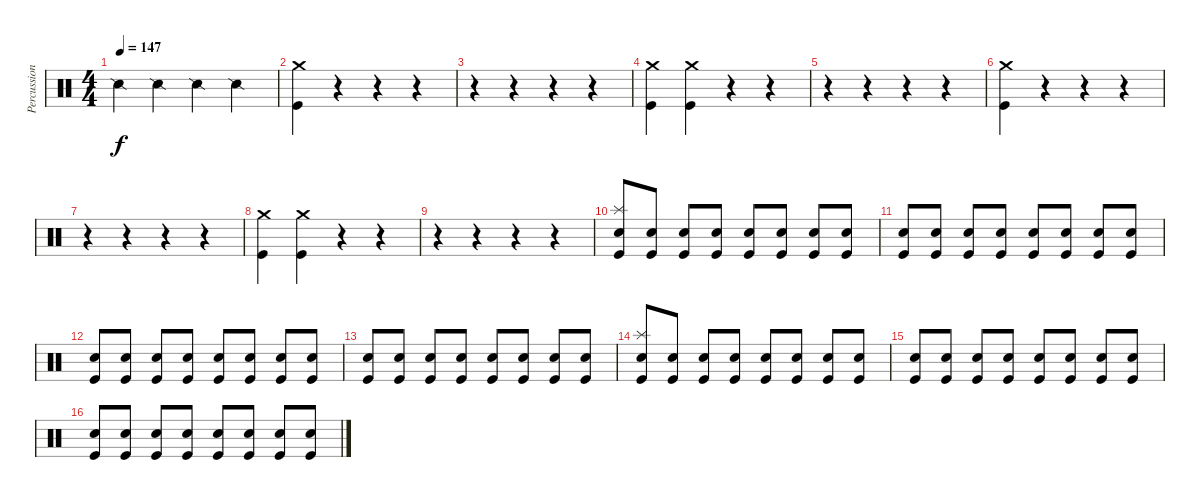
\track ("Percussions" "Percussion") {instrument percussion}
\staff {score}
\articulation defaults
\ts (4 4)
\tempo 147
\clef neutral
\ks c "Snare (side stick) 2".4{dy f} "Snare (side stick) 2".4 "Snare (side stick) 2".4 "Snare (side stick) 2".4
|
("Kick (hit)" "Crash medium (hit)").4 r.4 r.4 r.4 |
r.4 r.4 r.4 r.4 |
("Kick (hit)" "Crash medium (hit)").4 ("Crash medium (hit)" "Kick (hit)").4 r.4 r.4 |
r.4 r.4 r.4 r.4 |
("Kick (hit)" "Crash medium (hit)").4 r.4 r.4 r.4 |
r.4 r.4 r.4 r.4 |
("Kick (hit)" "Crash medium (hit)").4 ("Kick (hit)" "Crash medium (hit)").4 r.4 r.4 |
r.4 r.4 r.4 r.4 |
("Splash (hit)" "Electric Snare (hit)" "Kick (hit)").8 ("Electric Snare (hit)" "Kick (hit)").8 ("Electric Snare (hit)" "Kick (hit)").8 ("Electric Snare (hit)" "Kick (hit)").8 ("Electric Snare (hit)" "Kick (hit)").8 ("Electric Snare (hit)" "Kick (hit)").8 ("Electric Snare (hit)" "Kick (hit)").8 ("Electric Snare (hit)" "Kick (hit)").8 |
("Electric Snare (hit)" "Kick (hit)").8 ("Electric Snare (hit)" "Kick (hit)").8 ("Electric Snare (hit)" "Kick (hit)").8 ("Electric Snare (hit)" "Kick (hit)").8 ("Electric Snare (hit)" "Kick (hit)").8 ("Electric Snare (hit)" "Kick (hit)").8 ("Electric Snare (hit)" "Kick (hit)").8 ("Electric Snare (hit)" "Kick (hit)").8 |
("Electric Snare (hit)" "Kick (hit)").8 ("Electric Snare (hit)" "Kick (hit)").8 ("Electric Snare (hit)" "Kick (hit)").8 ("Electric Snare (hit)" "Kick (hit)").8 ("Electric Snare (hit)" "Kick (hit)").8 ("Electric Snare (hit)" "Kick (hit)").8 ("Electric Snare (hit)" "Kick (hit)").8 ("Electric Snare (hit)" "Kick (hit)").8 |
("Electric Snare (hit)" "Kick (hit)").8 ("Electric Snare (hit)" "Kick (hit)").8 ("Electric Snare (hit)" "Kick (hit)").8 ("Electric Snare (hit)" "Kick (hit)").8 ("Electric Snare (hit)" "Kick (hit)").8 ("Electric Snare (hit)" "Kick (hit)").8 ("Electric Snare (hit)" "Kick (hit)").8 ("Electric Snare (hit)" "Kick (hit)").8 |
("Splash (hit)" "Electric Snare (hit)" "Kick (hit)").8 ("Electric Snare (hit)" "Kick (hit)").8 ("Electric Snare (hit)" "Kick (hit)").8 ("Electric Snare (hit)" "Kick (hit)").8 ("Electric Snare (hit)" "Kick (hit)").8 ("Electric Snare (hit)" "Kick (hit)").8 ("Electric Snare (hit)" "Kick (hit)").8 ("Electric Snare (hit)" "Kick (hit)").8 |
("Electric Snare (hit)" "Kick (hit)").8 ("Electric Snare (hit)" "Kick (hit)").8 ("Electric Snare (hit)" "Kick (hit)").8 ("Electric Snare (hit)" "Kick (hit)").8 ("Electric Snare (hit)" "Kick (hit)").8 ("Electric Snare (hit)" "Kick (hit)").8 ("Electric Snare (hit)" "Kick (hit)").8 ("Electric Snare (hit)" "Kick (hit)").8 |
("Electric Snare (hit)" "Kick (hit)").8 ("Electric Snare (hit)" "Kick (hit)").8 ("Electric Snare (hit)" "Kick (hit)").8 ("Electric Snare (hit)" "Kick (hit)").8 ("Electric Snare (hit)" "Kick (hit)").8 ("Electric Snare (hit)" "Kick (hit)").8 ("Electric Snare (hit)" "Kick (hit)").8 ("Electric Snare (hit)" "Kick (hit)").8
